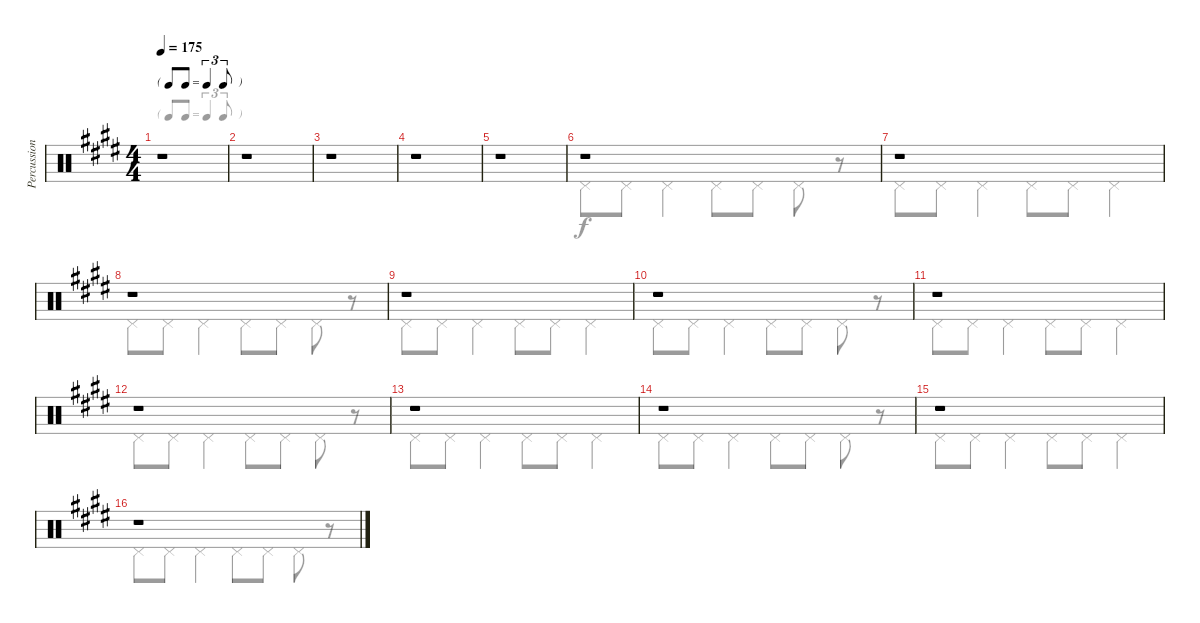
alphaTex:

\track ("Percussion" "Percussion") {instrument percussion}
\staff {score}
\articulation defaults
\voice
\ts (4 4)
\tf triplet8th
\tempo 175
\clef neutral
\ks e
r.1{dy f} |
r.1 |
r.1 |
r.1 |
r.1 |
r.1 |
r.1 |
r.1 |
r.1 |
r.1 |
r.1 |
r.1 |
r.1 |
r.1 |
r.1 |
r.1
\voice
\clef neutral
\ottava regular
\simile none
\ks e
r.1{dy f} |
r.1 |
r.1 |
r.1 |
r.1 |
"Pedal Hi-Hat (hit)".8 "Pedal Hi-Hat (hit)".8 "Pedal Hi-Hat (hit)".4 "Pedal Hi-Hat (hit)".8 "Pedal Hi-Hat (hit)".8 "Pedal Hi-Hat (hit)".8 r.8 |
"Pedal Hi-Hat (hit)".8 "Pedal Hi-Hat (hit)".8 "Pedal Hi-Hat (hit)".4 "Pedal Hi-Hat (hit)".8 "Pedal Hi-Hat (hit)".8 "Pedal Hi-Hat (hit)".4 |
"Pedal Hi-Hat (hit)".8 "Pedal Hi-Hat (hit)".8 "Pedal Hi-Hat (hit)".4 "Pedal Hi-Hat (hit)".8 "Pedal Hi-Hat (hit)".8 "Pedal Hi-Hat (hit)".8 r.8 |
"Pedal Hi-Hat (hit)".8 "Pedal Hi-Hat (hit)".8 "Pedal Hi-Hat (hit)".4 "Pedal Hi-Hat (hit)".8 "Pedal Hi-Hat (hit)".8 "Pedal Hi-Hat (hit)".4 |
"Pedal Hi-Hat (hit)".8 "Pedal Hi-Hat (hit)".8 "Pedal Hi-Hat (hit)".4 "Pedal Hi-Hat (hit)".8 "Pedal Hi-Hat (hit)".8 "Pedal Hi-Hat (hit)".8 r.8 |
"Pedal Hi-Hat (hit)".8 "Pedal Hi-Hat (hit)".8 "Pedal Hi-Hat (hit)".4 "Pedal Hi-Hat (hit)".8 "Pedal Hi-Hat (hit)".8 "Pedal Hi-Hat (hit)".4 |
"Pedal Hi-Hat (hit)".8 "Pedal Hi-Hat (hit)".8 "Pedal Hi-Hat (hit)".4 "Pedal Hi-Hat (hit)".8 "Pedal Hi-Hat (hit)".8 "Pedal Hi-Hat (hit)".8 r.8 |
"Pedal Hi-Hat (hit)".8 "Pedal Hi-Hat (hit)".8 "Pedal Hi-Hat (hit)".4 "Pedal Hi-Hat (hit)".8 "Pedal Hi-Hat (hit)".8 "Pedal Hi-Hat (hit)".4 |
"Pedal Hi-Hat (hit)".8 "Pedal Hi-Hat (hit)".8 "Pedal Hi-Hat (hit)".4 "Pedal Hi-Hat (hit)".8 "Pedal Hi-Hat (hit)".8 "Pedal Hi-Hat (hit)".8 r.8 |
"Pedal Hi-Hat (hit)".8 "Pedal Hi-Hat (hit)".8 "Pedal Hi-Hat (hit)".4 "Pedal Hi-Hat (hit)".8 "Pedal Hi-Hat (hit)".8 "Pedal Hi-Hat (hit)".4 |
"Pedal Hi-Hat (hit)".8 "Pedal Hi-Hat (hit)".8 "Pedal Hi-Hat (hit)".4 "Pedal Hi-Hat (hit)".8 "Pedal Hi-Hat (hit)".8 "Pedal Hi-Hat (hit)".8 r.8
